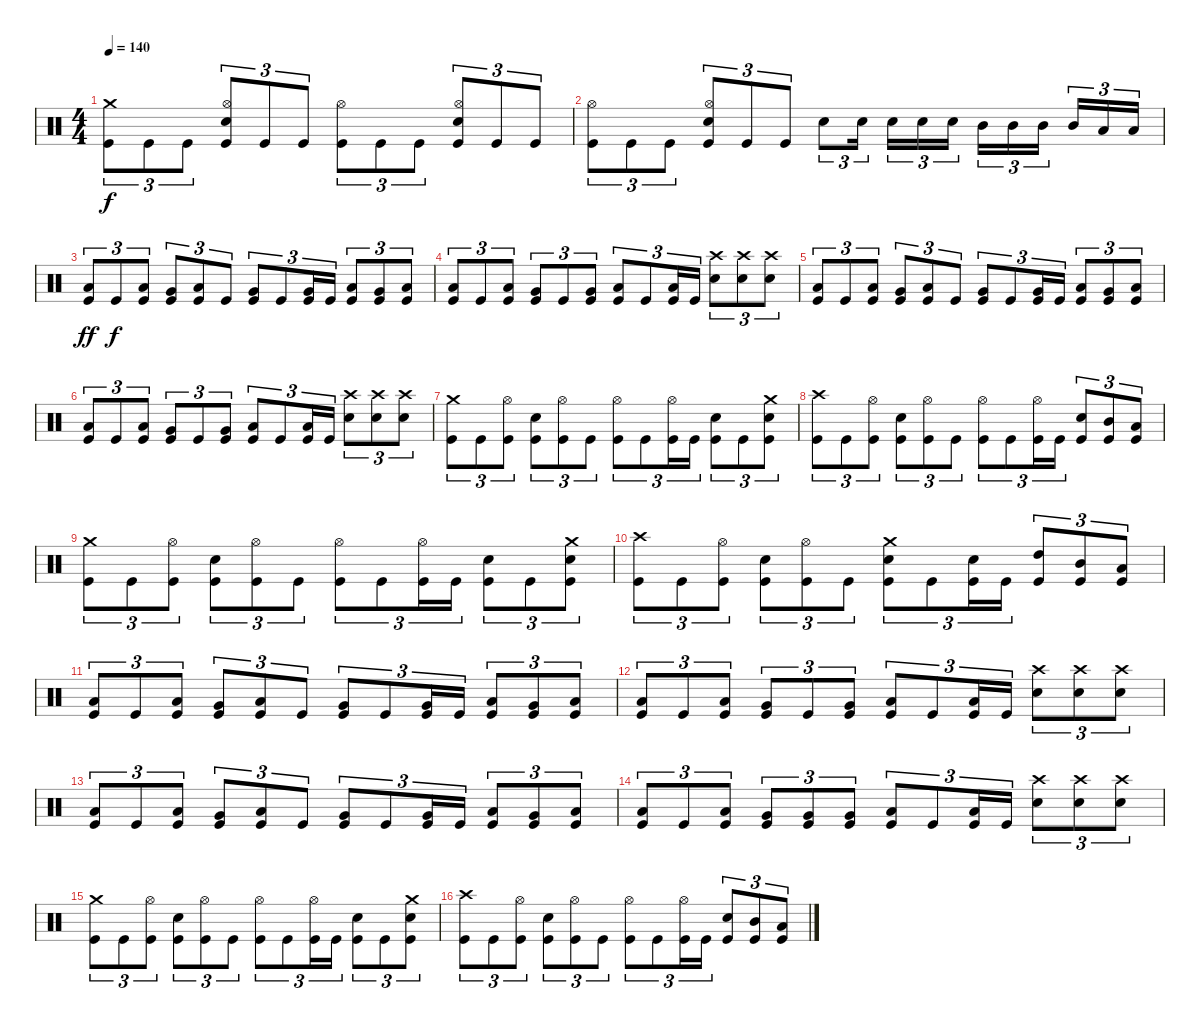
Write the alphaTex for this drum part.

\track "" {instrument percussion}
\staff {score}
\articulation defaults
\ts (4 4)
\tempo 140
\clef neutral
\ks c
("Crash medium (hit)" "Kick (hit)").8{tu (3 2) dy f} "Kick (hit)".8{tu (3 2)} "Kick (hit)".8{tu (3 2)} ("Hi-Hat (open)" "Kick (hit)" "Snare (hit) 2").8{tu (3 2)} "Kick (hit)".8{tu (3 2)} "Kick (hit)".8{tu (3 2)} ("Hi-Hat (open)" "Kick (hit)").8{tu (3 2)} "Kick (hit)".8{tu (3 2)} "Kick (hit)".8{tu (3 2)} ("Hi-Hat (open)" "Snare (hit) 2" "Kick (hit)").8{tu (3 2)} "Kick (hit)".8{tu (3 2)} "Kick (hit)".8{tu (3 2)} |
("Hi-Hat (open)" "Kick (hit)").8{tu (3 2)} "Kick (hit)".8{tu (3 2)} "Kick (hit)".8{tu (3 2)} ("Hi-Hat (open)" "Kick (hit)" "Snare (hit) 2").8{tu (3 2)} "Kick (hit)".8{tu (3 2)} "Kick (hit)".8{tu (3 2)} "Snare (hit) 2".8{tu (3 2)} "Snare (hit) 2".16{tu (3 2) beam splitsecondary} "Snare (hit) 2".16{tu (3 2)} "Snare (hit) 2".16{tu (3 2)} "Snare (hit) 2".16{tu (3 2)} "Mid Tom (hit)".16{tu (3 2)} "Mid Tom (hit)".16{tu (3 2)} "Mid Tom (hit)".16{tu (3 2) beam splitsecondary} "Mid Tom (hit)".16{tu (3 2)} "Low Tom (hit)".16{tu (3 2)} "Low Tom (hit)".16{tu (3 2)} |
("Low Tom (hit)" "Kick (hit)").8{tu (3 2) dy ff} "Kick (hit)".8{tu (3 2) dy f} ("Low Tom (hit)" "Kick (hit)").8{tu (3 2)} ("Very Low Tom (hit)" "Kick (hit)").8{tu (3 2)} ("Low Tom (hit)" "Kick (hit)").8{tu (3 2)} "Kick (hit)".8{tu (3 2)} ("Very Low Tom (hit)" "Kick (hit)").8{tu (3 2)} "Kick (hit)".8{tu (3 2)} ("Very Low Tom (hit)" "Kick (hit)").16{tu (3 2)} "Kick (hit)".16{tu (3 2)} ("Low Floor Tom (hit)" "Kick (hit)").8{tu (3 2)} ("Kick (hit)" "Very Low Tom (hit)").8{tu (3 2)} ("Kick (hit)" "Low Floor Tom (hit)").8{tu (3 2)} |
("Low Tom (hit)" "Kick (hit)").8{tu (3 2)} "Kick (hit)".8{tu (3 2)} ("Kick (hit)" "Low Tom (hit)").8{tu (3 2)} ("Very Low Tom (hit)" "Kick (hit)").8{tu (3 2)} "Kick (hit)".8{tu (3 2)} ("Very Low Tom (hit)" "Kick (hit)").8{tu (3 2)} ("Low Floor Tom (hit)" "Kick (hit)").8{tu (3 2)} "Kick (hit)".8{tu (3 2)} ("Low Floor Tom (hit)" "Kick (hit)").16{tu (3 2)} "Kick (hit)".16{tu (3 2)} ("Snare (hit) 2" "Crash high (hit)").8{tu (3 2)} ("Snare (hit) 2" "Crash high (hit)").8{tu (3 2)} ("Snare (hit) 2" "Crash high (hit)").8{tu (3 2)} |
("Low Tom (hit)" "Kick (hit)").8{tu (3 2)} "Kick (hit)".8{tu (3 2)} ("Low Tom (hit)" "Kick (hit)").8{tu (3 2)} ("Very Low Tom (hit)" "Kick (hit)").8{tu (3 2)} ("Low Tom (hit)" "Kick (hit)").8{tu (3 2)} "Kick (hit)".8{tu (3 2)} ("Very Low Tom (hit)" "Kick (hit)").8{tu (3 2)} "Kick (hit)".8{tu (3 2)} ("Very Low Tom (hit)" "Kick (hit)").16{tu (3 2)} "Kick (hit)".16{tu (3 2)} ("Low Floor Tom (hit)" "Kick (hit)").8{tu (3 2)} ("Kick (hit)" "Very Low Tom (hit)").8{tu (3 2)} ("Kick (hit)" "Low Floor Tom (hit)").8{tu (3 2)} |
("Low Tom (hit)" "Kick (hit)").8{tu (3 2)} "Kick (hit)".8{tu (3 2)} ("Kick (hit)" "Low Tom (hit)").8{tu (3 2)} ("Very Low Tom (hit)" "Kick (hit)").8{tu (3 2)} "Kick (hit)".8{tu (3 2)} ("Very Low Tom (hit)" "Kick (hit)").8{tu (3 2)} ("Low Floor Tom (hit)" "Kick (hit)").8{tu (3 2)} "Kick (hit)".8{tu (3 2)} ("Low Floor Tom (hit)" "Kick (hit)").16{tu (3 2)} "Kick (hit)".16{tu (3 2)} ("Snare (hit) 2" "Crash high (hit)").8{tu (3 2)} ("Snare (hit) 2" "Crash high (hit)").8{tu (3 2)} ("Snare (hit) 2" "Crash high (hit)").8{tu (3 2)} |
("Crash medium (hit)" "Kick (hit)").8{tu (3 2)} "Kick (hit)".8{tu (3 2)} ("Hi-Hat (open)" "Kick (hit)").8{tu (3 2)} ("Snare (hit) 2" "Kick (hit)").8{tu (3 2)} ("Hi-Hat (open)" "Kick (hit)").8{tu (3 2)} "Kick (hit)".8{tu (3 2)} ("Hi-Hat (open)" "Kick (hit)").8{tu (3 2)} "Kick (hit)".8{tu (3 2)} ("Hi-Hat (open)" "Kick (hit)").16{tu (3 2)} "Kick (hit)".16{tu (3 2)} ("Snare (hit) 2" "Kick (hit)").8{tu (3 2)} "Kick (hit)".8{tu (3 2)} ("Snare (hit) 2" "Crash medium (hit)" "Kick (hit)").8{tu (3 2)} |
("Crash high (hit)" "Kick (hit)").8{tu (3 2)} "Kick (hit)".8{tu (3 2)} ("Kick (hit)" "Hi-Hat (open)").8{tu (3 2)} ("Kick (hit)" "Snare (hit) 2").8{tu (3 2)} ("Kick (hit)" "Hi-Hat (open)").8{tu (3 2)} "Kick (hit)".8{tu (3 2)} ("Hi-Hat (open)" "Kick (hit)").8{tu (3 2)} "Kick (hit)".8{tu (3 2)} ("Hi-Hat (open)" "Kick (hit)").16{tu (3 2)} "Kick (hit)".16{tu (3 2)} ("Kick (hit)" "Snare (hit) 2").8{tu (3 2)} ("Kick (hit)" "Mid Tom (hit)").8{tu (3 2)} ("Kick (hit)" "Low Tom (hit)").8{tu (3 2)} |
("Crash medium (hit)" "Kick (hit)").8{tu (3 2)} "Kick (hit)".8{tu (3 2)} ("Kick (hit)" "Hi-Hat (open)").8{tu (3 2)} ("Kick (hit)" "Snare (hit) 2").8{tu (3 2)} ("Kick (hit)" "Hi-Hat (open)").8{tu (3 2)} "Kick (hit)".8{tu (3 2)} ("Hi-Hat (open)" "Kick (hit)").8{tu (3 2)} "Kick (hit)".8{tu (3 2)} ("Hi-Hat (open)" "Kick (hit)").16{tu (3 2)} "Kick (hit)".16{tu (3 2)} ("Kick (hit)" "Snare (hit) 2").8{tu (3 2)} "Kick (hit)".8{tu (3 2)} ("Kick (hit)" "Snare (hit) 2" "Crash medium (hit)").8{tu (3 2)} |
("Crash high (hit)" "Kick (hit)").8{tu (3 2)} "Kick (hit)".8{tu (3 2)} ("Kick (hit)" "Hi-Hat (open)").8{tu (3 2)} ("Kick (hit)" "Snare (hit) 2").8{tu (3 2)} ("Kick (hit)" "Hi-Hat (open)").8{tu (3 2)} "Kick (hit)".8{tu (3 2)} ("Snare (hit) 2" "Crash medium (hit)" "Kick (hit)").8{tu (3 2)} "Kick (hit)".8{tu (3 2)} ("Snare (hit) 2" "Kick (hit)").16{tu (3 2)} "Kick (hit)".16{tu (3 2)} ("Kick (hit)" "High Tom (hit)").8{tu (3 2)} ("Kick (hit)" "Mid Tom (hit)").8{tu (3 2)} ("Kick (hit)" "Low Tom (hit)").8{tu (3 2)} |
("Low Tom (hit)" "Kick (hit)").8{tu (3 2)} "Kick (hit)".8{tu (3 2)} ("Low Tom (hit)" "Kick (hit)").8{tu (3 2)} ("Very Low Tom (hit)" "Kick (hit)").8{tu (3 2)} ("Low Tom (hit)" "Kick (hit)").8{tu (3 2)} "Kick (hit)".8{tu (3 2)} ("Very Low Tom (hit)" "Kick (hit)").8{tu (3 2)} "Kick (hit)".8{tu (3 2)} ("Very Low Tom (hit)" "Kick (hit)").16{tu (3 2)} "Kick (hit)".16{tu (3 2)} ("Low Floor Tom (hit)" "Kick (hit)").8{tu (3 2)} ("Kick (hit)" "Very Low Tom (hit)").8{tu (3 2)} ("Kick (hit)" "Low Floor Tom (hit)").8{tu (3 2)} |
("Low Tom (hit)" "Kick (hit)").8{tu (3 2)} "Kick (hit)".8{tu (3 2)} ("Kick (hit)" "Low Tom (hit)").8{tu (3 2)} ("Very Low Tom (hit)" "Kick (hit)").8{tu (3 2)} "Kick (hit)".8{tu (3 2)} ("Very Low Tom (hit)" "Kick (hit)").8{tu (3 2)} ("Low Floor Tom (hit)" "Kick (hit)").8{tu (3 2)} "Kick (hit)".8{tu (3 2)} ("Low Floor Tom (hit)" "Kick (hit)").16{tu (3 2)} "Kick (hit)".16{tu (3 2)} ("Snare (hit) 2" "Crash high (hit)").8{tu (3 2)} ("Snare (hit) 2" "Crash high (hit)").8{tu (3 2)} ("Snare (hit) 2" "Crash high (hit)").8{tu (3 2)} |
("Low Tom (hit)" "Kick (hit)").8{tu (3 2)} "Kick (hit)".8{tu (3 2)} ("Low Tom (hit)" "Kick (hit)").8{tu (3 2)} ("Very Low Tom (hit)" "Kick (hit)").8{tu (3 2)} ("Low Tom (hit)" "Kick (hit)").8{tu (3 2)} "Kick (hit)".8{tu (3 2)} ("Very Low Tom (hit)" "Kick (hit)").8{tu (3 2)} "Kick (hit)".8{tu (3 2)} ("Very Low Tom (hit)" "Kick (hit)").16{tu (3 2)} "Kick (hit)".16{tu (3 2)} ("Low Floor Tom (hit)" "Kick (hit)").8{tu (3 2)} ("Kick (hit)" "Very Low Tom (hit)").8{tu (3 2)} ("Kick (hit)" "Low Floor Tom (hit)").8{tu (3 2)} |
("Low Tom (hit)" "Kick (hit)").8{tu (3 2)} "Kick (hit)".8{tu (3 2)} ("Kick (hit)" "Low Tom (hit)").8{tu (3 2)} ("Very Low Tom (hit)" "Kick (hit)").8{tu (3 2)} ("Very Low Tom (hit)" "Kick (hit)").8{tu (3 2)} ("Very Low Tom (hit)" "Kick (hit)").8{tu (3 2)} ("Low Floor Tom (hit)" "Kick (hit)").8{tu (3 2)} "Kick (hit)".8{tu (3 2)} ("Low Floor Tom (hit)" "Kick (hit)").16{tu (3 2)} "Kick (hit)".16{tu (3 2)} ("Snare (hit) 2" "Crash high (hit)").8{tu (3 2)} ("Snare (hit) 2" "Crash high (hit)").8{tu (3 2)} ("Snare (hit) 2" "Crash high (hit)").8{tu (3 2)} |
("Crash medium (hit)" "Kick (hit)").8{tu (3 2)} "Kick (hit)".8{tu (3 2)} ("Hi-Hat (open)" "Kick (hit)").8{tu (3 2)} ("Snare (hit) 2" "Kick (hit)").8{tu (3 2)} ("Hi-Hat (open)" "Kick (hit)").8{tu (3 2)} "Kick (hit)".8{tu (3 2)} ("Hi-Hat (open)" "Kick (hit)").8{tu (3 2)} "Kick (hit)".8{tu (3 2)} ("Hi-Hat (open)" "Kick (hit)").16{tu (3 2)} "Kick (hit)".16{tu (3 2)} ("Snare (hit) 2" "Kick (hit)").8{tu (3 2)} "Kick (hit)".8{tu (3 2)} ("Snare (hit) 2" "Crash medium (hit)" "Kick (hit)").8{tu (3 2)} |
("Crash high (hit)" "Kick (hit)").8{tu (3 2)} "Kick (hit)".8{tu (3 2)} ("Kick (hit)" "Hi-Hat (open)").8{tu (3 2)} ("Kick (hit)" "Snare (hit) 2").8{tu (3 2)} ("Kick (hit)" "Hi-Hat (open)").8{tu (3 2)} "Kick (hit)".8{tu (3 2)} ("Hi-Hat (open)" "Kick (hit)").8{tu (3 2)} "Kick (hit)".8{tu (3 2)} ("Hi-Hat (open)" "Kick (hit)").16{tu (3 2)} "Kick (hit)".16{tu (3 2)} ("Kick (hit)" "Snare (hit) 2").8{tu (3 2)} ("Kick (hit)" "Mid Tom (hit)").8{tu (3 2)} ("Kick (hit)" "Low Tom (hit)").8{tu (3 2)}
